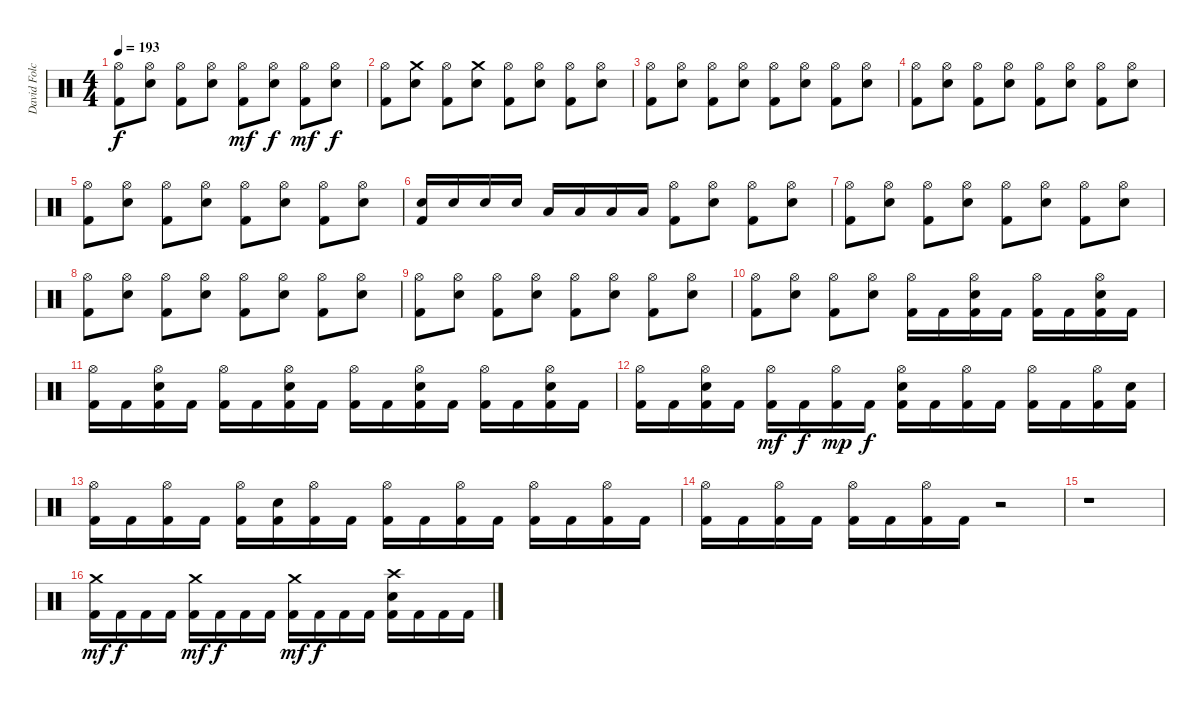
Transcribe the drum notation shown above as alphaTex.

\track ("David Folchitto" "David Folc") {instrument percussion}
\staff {score}
\articulation defaults
\ts (4 4)
\tempo 193
\clef neutral
\ks c
("Hi-Hat (open)" "Kick (hit) 2").8{dy f} ("Hi-Hat (open)" "Snare (hit) 2").8 ("Hi-Hat (open)" "Kick (hit) 2").8 ("Hi-Hat (open)" "Snare (hit) 2").8 ("Hi-Hat (open)" "Kick (hit) 2").8{dy mf} ("Hi-Hat (open)" "Snare (hit) 2").8{dy f} ("Hi-Hat (open)" "Kick (hit) 2").8{dy mf} ("Hi-Hat (open)" "Snare (hit) 2").8{dy f} |
("Hi-Hat (open)" "Kick (hit) 2").8 ("Crash medium (hit)" "Snare (hit) 2").8 ("Hi-Hat (open)" "Kick (hit) 2").8 ("Crash medium (hit)" "Snare (hit) 2").8 ("Hi-Hat (open)" "Kick (hit) 2").8 ("Hi-Hat (open)" "Snare (hit) 2").8 ("Hi-Hat (open)" "Kick (hit) 2").8 ("Hi-Hat (open)" "Snare (hit) 2").8 |
("Hi-Hat (open)" "Kick (hit) 2").8 ("Hi-Hat (open)" "Snare (hit) 2").8 ("Hi-Hat (open)" "Kick (hit) 2").8 ("Hi-Hat (open)" "Snare (hit) 2").8 ("Hi-Hat (open)" "Kick (hit) 2").8 ("Hi-Hat (open)" "Snare (hit) 2").8 ("Hi-Hat (open)" "Kick (hit) 2").8 ("Hi-Hat (open)" "Snare (hit) 2").8 |
("Hi-Hat (open)" "Kick (hit) 2").8 ("Hi-Hat (open)" "Snare (hit) 2").8 ("Hi-Hat (open)" "Kick (hit) 2").8 ("Hi-Hat (open)" "Snare (hit) 2").8 ("Hi-Hat (open)" "Kick (hit) 2").8 ("Hi-Hat (open)" "Snare (hit) 2").8 ("Hi-Hat (open)" "Kick (hit) 2").8 ("Hi-Hat (open)" "Snare (hit) 2").8 |
("Hi-Hat (open)" "Kick (hit) 2").8 ("Hi-Hat (open)" "Snare (hit) 2").8 ("Hi-Hat (open)" "Kick (hit) 2").8 ("Hi-Hat (open)" "Snare (hit) 2").8 ("Hi-Hat (open)" "Kick (hit) 2").8 ("Hi-Hat (open)" "Snare (hit) 2").8 ("Hi-Hat (open)" "Kick (hit) 2").8 ("Hi-Hat (open)" "Snare (hit) 2").8 |
("Snare (hit) 2" "Kick (hit) 2").16 "Snare (hit) 2".16 "Snare (hit) 2".16 "Snare (hit) 2".16 "Low Tom (hit)".16 "Low Tom (hit)".16 "Low Tom (hit)".16 "Low Tom (hit)".16 ("Hi-Hat (open)" "Kick (hit) 2").8 ("Hi-Hat (open)" "Snare (hit) 2").8 ("Hi-Hat (open)" "Kick (hit) 2").8 ("Hi-Hat (open)" "Snare (hit) 2").8 |
("Hi-Hat (open)" "Kick (hit) 2").8 ("Hi-Hat (open)" "Snare (hit) 2").8 ("Hi-Hat (open)" "Kick (hit) 2").8 ("Hi-Hat (open)" "Snare (hit) 2").8 ("Hi-Hat (open)" "Kick (hit) 2").8 ("Hi-Hat (open)" "Snare (hit) 2").8 ("Hi-Hat (open)" "Kick (hit) 2").8 ("Hi-Hat (open)" "Snare (hit) 2").8 |
("Hi-Hat (open)" "Kick (hit) 2").8 ("Hi-Hat (open)" "Snare (hit) 2").8 ("Hi-Hat (open)" "Kick (hit) 2").8 ("Hi-Hat (open)" "Snare (hit) 2").8 ("Hi-Hat (open)" "Kick (hit) 2").8 ("Hi-Hat (open)" "Snare (hit) 2").8 ("Hi-Hat (open)" "Kick (hit) 2").8 ("Hi-Hat (open)" "Snare (hit) 2").8 |
("Hi-Hat (open)" "Kick (hit) 2").8 ("Hi-Hat (open)" "Snare (hit) 2").8 ("Hi-Hat (open)" "Kick (hit) 2").8 ("Hi-Hat (open)" "Snare (hit) 2").8 ("Hi-Hat (open)" "Kick (hit) 2").8 ("Hi-Hat (open)" "Snare (hit) 2").8 ("Hi-Hat (open)" "Kick (hit) 2").8 ("Hi-Hat (open)" "Snare (hit) 2").8 |
("Hi-Hat (open)" "Kick (hit) 2").8 ("Hi-Hat (open)" "Snare (hit) 2").8 ("Hi-Hat (open)" "Kick (hit) 2").8 ("Hi-Hat (open)" "Snare (hit) 2").8 ("Hi-Hat (open)" "Kick (hit) 2").16 "Kick (hit) 2".16 ("Hi-Hat (open)" "Snare (hit) 2" "Kick (hit) 2").16 "Kick (hit) 2".16 ("Hi-Hat (open)" "Kick (hit) 2").16 "Kick (hit) 2".16 ("Hi-Hat (open)" "Snare (hit) 2" "Kick (hit) 2").16 "Kick (hit) 2".16 |
("Hi-Hat (open)" "Kick (hit) 2").16 "Kick (hit) 2".16 ("Hi-Hat (open)" "Snare (hit) 2" "Kick (hit) 2").16 "Kick (hit) 2".16 ("Hi-Hat (open)" "Kick (hit) 2").16 "Kick (hit) 2".16 ("Hi-Hat (open)" "Snare (hit) 2" "Kick (hit) 2").16 "Kick (hit) 2".16 ("Hi-Hat (open)" "Kick (hit) 2").16 "Kick (hit) 2".16 ("Hi-Hat (open)" "Snare (hit) 2" "Kick (hit) 2").16 "Kick (hit) 2".16 ("Hi-Hat (open)" "Kick (hit) 2").16 "Kick (hit) 2".16 ("Hi-Hat (open)" "Snare (hit) 2" "Kick (hit) 2").16 "Kick (hit) 2".16 |
("Hi-Hat (open)" "Kick (hit) 2").16 "Kick (hit) 2".16 ("Hi-Hat (open)" "Snare (hit) 2" "Kick (hit) 2").16 "Kick (hit) 2".16 ("Hi-Hat (open)" "Kick (hit) 2").16{dy mf} "Kick (hit) 2".16{dy f} ("Hi-Hat (open)" "Kick (hit) 2").16{dy mp} "Kick (hit) 2".16{dy f} ("Hi-Hat (open)" "Snare (hit) 2" "Kick (hit) 2").16 "Kick (hit) 2".16 ("Hi-Hat (open)" "Kick (hit) 2").16 "Kick (hit) 2".16 ("Hi-Hat (open)" "Kick (hit) 2").16 "Kick (hit) 2".16 ("Hi-Hat (open)" "Kick (hit) 2").16 ("Snare (hit) 2" "Kick (hit) 2").16 |
("Hi-Hat (open)" "Kick (hit) 2").16 "Kick (hit) 2".16 ("Hi-Hat (open)" "Kick (hit) 2").16 "Kick (hit) 2".16 ("Hi-Hat (open)" "Kick (hit) 2").16 ("Snare (hit) 2" "Kick (hit) 2").16 ("Hi-Hat (open)" "Kick (hit) 2").16 "Kick (hit) 2".16 ("Hi-Hat (open)" "Kick (hit) 2").16 "Kick (hit) 2".16 ("Hi-Hat (open)" "Kick (hit) 2").16 "Kick (hit) 2".16 ("Hi-Hat (open)" "Kick (hit) 2").16 "Kick (hit) 2".16 ("Hi-Hat (open)" "Kick (hit) 2").16 "Kick (hit) 2".16 |
("Hi-Hat (open)" "Kick (hit) 2").16 "Kick (hit) 2".16 ("Hi-Hat (open)" "Kick (hit) 2").16 "Kick (hit) 2".16 ("Hi-Hat (open)" "Kick (hit) 2").16 "Kick (hit) 2".16 ("Hi-Hat (open)" "Kick (hit) 2").16 "Kick (hit) 2".16 r.2 |
r.1 |
("Crash medium (hit)" "Kick (hit) 2").16{dy mf} "Kick (hit) 2".16{dy f} "Kick (hit) 2".16 "Kick (hit) 2".16 ("Crash medium (hit)" "Kick (hit) 2").16{dy mf} "Kick (hit) 2".16{dy f} "Kick (hit) 2".16 "Kick (hit) 2".16 ("Crash medium (hit)" "Kick (hit) 2").16{dy mf} "Kick (hit) 2".16{dy f} "Kick (hit) 2".16 "Kick (hit) 2".16 ("Crash high (hit)" "Snare (hit) 2" "Kick (hit) 2").16 "Kick (hit) 2".16 "Kick (hit) 2".16 "Kick (hit) 2".16
